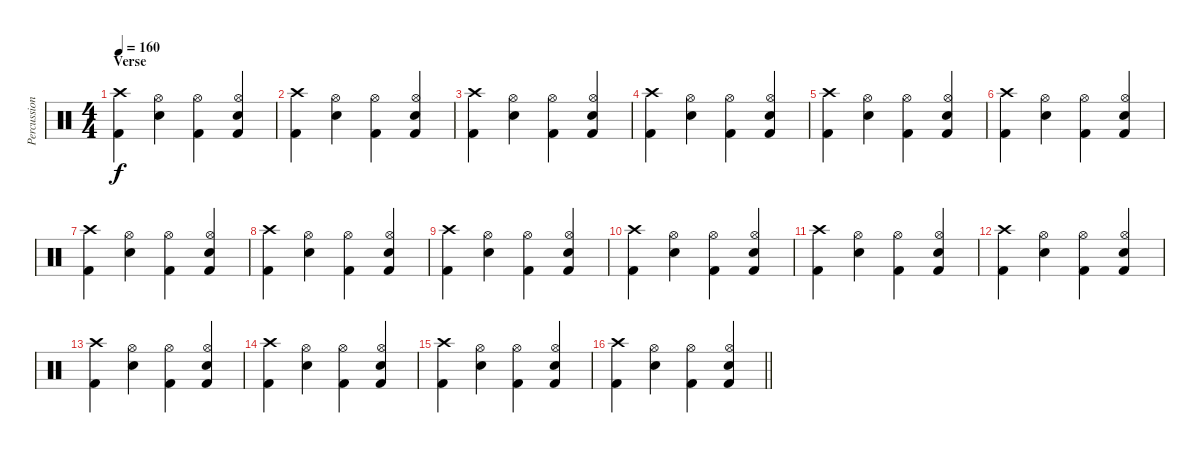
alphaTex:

\track ("Percussion" "Percussion") {instrument percussion}
\staff {score}
\articulation defaults
\ts (4 4)
\section ("" "Verse")
\tempo 160
\clef neutral
\ks c
("Crash high (hit)" "Kick (hit) 2").4{dy f} ("Hi-Hat (open)" "Snare (hit) 2").4 ("Hi-Hat (open)" "Kick (hit) 2").4 ("Hi-Hat (open)" "Snare (hit) 2" "Kick (hit) 2").4 |
("Crash high (hit)" "Kick (hit) 2").4 ("Hi-Hat (open)" "Snare (hit) 2").4 ("Hi-Hat (open)" "Kick (hit) 2").4 ("Hi-Hat (open)" "Snare (hit) 2" "Kick (hit) 2").4 |
("Crash high (hit)" "Kick (hit) 2").4 ("Hi-Hat (open)" "Snare (hit) 2").4 ("Hi-Hat (open)" "Kick (hit) 2").4 ("Hi-Hat (open)" "Snare (hit) 2" "Kick (hit) 2").4 |
("Crash high (hit)" "Kick (hit) 2").4 ("Hi-Hat (open)" "Snare (hit) 2").4 ("Hi-Hat (open)" "Kick (hit) 2").4 ("Hi-Hat (open)" "Snare (hit) 2" "Kick (hit) 2").4 |
("Crash high (hit)" "Kick (hit) 2").4 ("Hi-Hat (open)" "Snare (hit) 2").4 ("Hi-Hat (open)" "Kick (hit) 2").4 ("Hi-Hat (open)" "Snare (hit) 2" "Kick (hit) 2").4 |
("Crash high (hit)" "Kick (hit) 2").4 ("Hi-Hat (open)" "Snare (hit) 2").4 ("Hi-Hat (open)" "Kick (hit) 2").4 ("Hi-Hat (open)" "Snare (hit) 2" "Kick (hit) 2").4 |
("Crash high (hit)" "Kick (hit) 2").4 ("Hi-Hat (open)" "Snare (hit) 2").4 ("Hi-Hat (open)" "Kick (hit) 2").4 ("Hi-Hat (open)" "Snare (hit) 2" "Kick (hit) 2").4 |
("Crash high (hit)" "Kick (hit) 2").4 ("Hi-Hat (open)" "Snare (hit) 2").4 ("Hi-Hat (open)" "Kick (hit) 2").4 ("Hi-Hat (open)" "Snare (hit) 2" "Kick (hit) 2").4 |
("Crash high (hit)" "Kick (hit) 2").4 ("Hi-Hat (open)" "Snare (hit) 2").4 ("Hi-Hat (open)" "Kick (hit) 2").4 ("Hi-Hat (open)" "Snare (hit) 2" "Kick (hit) 2").4 |
("Crash high (hit)" "Kick (hit) 2").4 ("Hi-Hat (open)" "Snare (hit) 2").4 ("Hi-Hat (open)" "Kick (hit) 2").4 ("Hi-Hat (open)" "Snare (hit) 2" "Kick (hit) 2").4 |
("Crash high (hit)" "Kick (hit) 2").4 ("Hi-Hat (open)" "Snare (hit) 2").4 ("Hi-Hat (open)" "Kick (hit) 2").4 ("Hi-Hat (open)" "Snare (hit) 2" "Kick (hit) 2").4 |
("Crash high (hit)" "Kick (hit) 2").4 ("Hi-Hat (open)" "Snare (hit) 2").4 ("Hi-Hat (open)" "Kick (hit) 2").4 ("Hi-Hat (open)" "Snare (hit) 2" "Kick (hit) 2").4 |
("Crash high (hit)" "Kick (hit) 2").4 ("Hi-Hat (open)" "Snare (hit) 2").4 ("Hi-Hat (open)" "Kick (hit) 2").4 ("Hi-Hat (open)" "Snare (hit) 2" "Kick (hit) 2").4 |
("Crash high (hit)" "Kick (hit) 2").4 ("Hi-Hat (open)" "Snare (hit) 2").4 ("Hi-Hat (open)" "Kick (hit) 2").4 ("Hi-Hat (open)" "Snare (hit) 2" "Kick (hit) 2").4 |
("Crash high (hit)" "Kick (hit) 2").4 ("Hi-Hat (open)" "Snare (hit) 2").4 ("Hi-Hat (open)" "Kick (hit) 2").4 ("Hi-Hat (open)" "Snare (hit) 2" "Kick (hit) 2").4 |
\barLineRight lightlight
("Crash high (hit)" "Kick (hit) 2").4 ("Hi-Hat (open)" "Snare (hit) 2").4 ("Hi-Hat (open)" "Kick (hit) 2").4 ("Hi-Hat (open)" "Snare (hit) 2" "Kick (hit) 2").4
